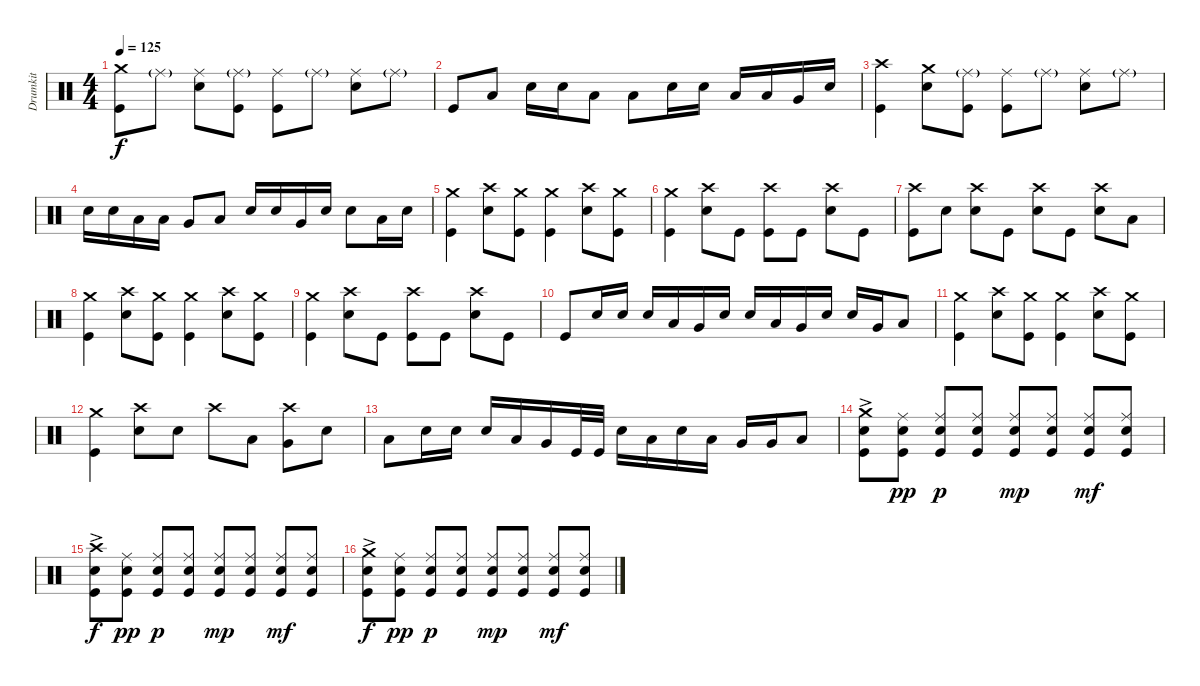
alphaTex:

\track ("Drumkit" "Drumkit") {instrument percussion}
\staff {score}
\articulation defaults
\ts (4 4)
\tempo 125
\clef neutral
\ks c
("Crash medium (hit)" "Kick (hit)").8{dy f} "Ride (middle)"{g}.8 ("Ride (middle)" "Snare (hit) 2").8 ("Ride (middle)"{g} "Kick (hit)").8 ("Ride (middle)" "Kick (hit)").8 "Ride (middle)"{g}.8 ("Ride (middle)" "Snare (hit) 2").8 "Ride (middle)"{g}.8 |
"Kick (hit)".8 "Low Tom (hit)".8 "Snare (hit) 2".16 "Snare (hit) 2".16 "Low Tom (hit)".8 "Low Floor Tom (hit)".8 "Snare (hit) 2".16 "Snare (hit) 2".16 "Low Tom (hit)".16 "Low Tom (hit)".16 "Very Low Tom (hit)".16 "Snare (hit) 2".16 |
("Kick (hit)" "Crash high (hit)").4 ("Snare (hit) 2" "Crash medium (hit)").8 ("Ride (middle)"{g} "Kick (hit)").8 ("Ride (middle)" "Kick (hit)").8 "Ride (middle)"{g}.8 ("Ride (middle)" "Snare (hit) 2").8 "Ride (middle)"{g}.8 |
"Snare (hit) 2".16 "Snare (hit) 2".16 "Low Tom (hit)".16 "Low Tom (hit)".16 "Very Low Tom (hit)".8 "Low Floor Tom (hit)".8 "Snare (hit) 2".16 "Snare (hit) 2".16 "Very Low Tom (hit)".16 "Snare (hit) 2".16 "Snare (hit) 2".8 "Low Tom (hit)".16 "Snare (hit) 2".16 |
("Kick (hit)" "Crash medium (hit)").4 ("Snare (hit) 2" "Crash high (hit)").8 ("Kick (hit)" "Crash medium (hit)").8 ("Kick (hit)" "Crash medium (hit)").4 ("Snare (hit) 2" "Crash high (hit)").8 ("Kick (hit)" "Crash medium (hit)").8 |
("Kick (hit)" "Crash medium (hit)").4 ("Snare (hit) 2" "Crash high (hit)").8 "Kick (hit)".8 ("Kick (hit)" "Crash high (hit)").8 "Kick (hit)".8 ("Snare (hit) 2" "Crash high (hit)").8 "Kick (hit)".8 |
("Kick (hit)" "Crash high (hit)").8 "Snare (hit) 2".8 ("Snare (hit) 2" "Crash high (hit)").8 "Kick (hit)".8 ("Snare (hit) 2" "Crash high (hit)").8 "Kick (hit)".8 ("Snare (hit) 2" "Crash high (hit)").8 "Low Tom (hit)".8 |
("Kick (hit)" "Crash medium (hit)").4 ("Snare (hit) 2" "Crash high (hit)").8 ("Kick (hit)" "Crash medium (hit)").8 ("Kick (hit)" "Crash medium (hit)").4 ("Snare (hit) 2" "Crash high (hit)").8 ("Kick (hit)" "Crash medium (hit)").8 |
("Kick (hit)" "Crash medium (hit)").4 ("Snare (hit) 2" "Crash high (hit)").8 "Kick (hit)".8 ("Kick (hit)" "Crash high (hit)").8 "Kick (hit)".8 ("Snare (hit) 2" "Crash high (hit)").8 "Kick (hit)".8 |
"Kick (hit)".8 "Snare (hit) 2".16 "Snare (hit) 2".16 "Snare (hit) 2".16 "Low Tom (hit)".16 "Very Low Tom (hit)".16 "Snare (hit) 2".16 "Snare (hit) 2".16 "Low Tom (hit)".16 "Very Low Tom (hit)".16 "Snare (hit) 2".16 "Snare (hit) 2".16 "Very Low Tom (hit)".16 "Low Floor Tom (hit)".8 |
("Kick (hit)" "Crash medium (hit)").4 ("Snare (hit) 2" "Crash high (hit)").8 ("Kick (hit)" "Crash medium (hit)").8 ("Kick (hit)" "Crash medium (hit)").4 ("Snare (hit) 2" "Crash high (hit)").8 ("Kick (hit)" "Crash medium (hit)").8 |
("Kick (hit)" "Crash medium (hit)").4 ("Snare (hit) 2" "Crash high (hit)").8 "Snare (hit) 2".8 "Crash high (hit)".8 "Low Tom (hit)".8 ("Very Low Tom (hit)" "Crash high (hit)").8 "Snare (hit) 2".8 |
"Low Tom (hit)".8 "Snare (hit) 2".16 "Snare (hit) 2".16 "Snare (hit) 2".16 "Low Tom (hit)".16 "Very Low Tom (hit)".16 "Kick (hit)".32 "Kick (hit)".32 "Snare (hit) 2".16 "Low Floor Tom (hit)".16 "Snare (hit) 2".16 "Low Tom (hit)".16 "Very Low Tom (hit)".16 "Very Low Tom (hit)".16 "Low Floor Tom (hit)".8 |
("Crash medium (hit)" "Kick (hit)" "Snare (hit) 2"{ac}).8 ("Ride (middle)" "Kick (hit)" "Snare (hit) 2").8{dy pp} ("Ride (middle)" "Kick (hit)" "Snare (hit) 2").8{dy p} ("Ride (middle)" "Kick (hit)" "Snare (hit) 2").8 ("Ride (middle)" "Kick (hit)" "Snare (hit) 2").8{dy mp} ("Ride (middle)" "Kick (hit)" "Snare (hit) 2").8 ("Ride (middle)" "Kick (hit)" "Snare (hit) 2").8{dy mf} ("Ride (middle)" "Kick (hit)" "Snare (hit) 2").8 |
("Kick (hit)"{ac} "Snare (hit) 2" "Crash high (hit)").8{dy f} ("Ride (middle)" "Kick (hit)" "Snare (hit) 2").8{dy pp} ("Ride (middle)" "Kick (hit)" "Snare (hit) 2").8{dy p} ("Ride (middle)" "Kick (hit)" "Snare (hit) 2").8 ("Ride (middle)" "Kick (hit)" "Snare (hit) 2").8{dy mp} ("Ride (middle)" "Kick (hit)" "Snare (hit) 2").8 ("Ride (middle)" "Kick (hit)" "Snare (hit) 2").8{dy mf} ("Ride (middle)" "Kick (hit)" "Snare (hit) 2").8 |
("Crash medium (hit)" "Kick (hit)"{ac} "Snare (hit) 2").8{dy f} ("Ride (middle)" "Kick (hit)" "Snare (hit) 2").8{dy pp} ("Ride (middle)" "Kick (hit)" "Snare (hit) 2").8{dy p} ("Ride (middle)" "Kick (hit)" "Snare (hit) 2").8 ("Ride (middle)" "Kick (hit)" "Snare (hit) 2").8{dy mp} ("Ride (middle)" "Kick (hit)" "Snare (hit) 2").8 ("Ride (middle)" "Kick (hit)" "Snare (hit) 2").8{dy mf} ("Ride (middle)" "Kick (hit)" "Snare (hit) 2").8
